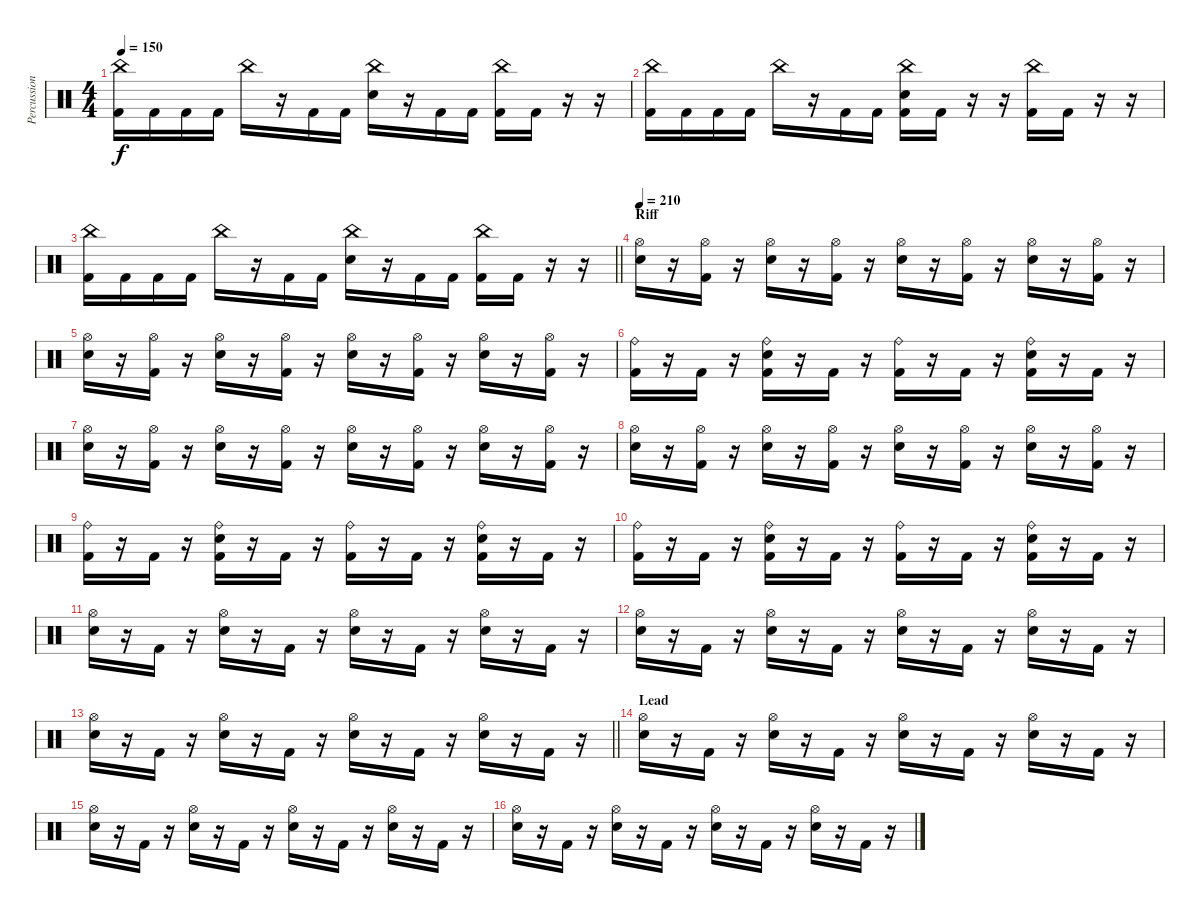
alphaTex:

\track ("Percussion" "Percussion") {instrument percussion}
\staff {score}
\articulation defaults
\ts (4 4)
\tempo 150
\clef neutral
\ks c
("China (hit)" "Kick (hit) 2").16{dy f} "Kick (hit) 2".16 "Kick (hit) 2".16 "Kick (hit) 2".16 "China (hit)".16 r.16 "Kick (hit) 2".16 "Kick (hit) 2".16 ("China (hit)" "Snare (hit) 2").16 r.16 "Kick (hit) 2".16 "Kick (hit) 2".16 ("China (hit)" "Kick (hit) 2").16 "Kick (hit) 2".16 r.16 r.16 |
("China (hit)" "Kick (hit) 2").16 "Kick (hit) 2".16 "Kick (hit) 2".16 "Kick (hit) 2".16 "China (hit)".16 r.16 "Kick (hit) 2".16 "Kick (hit) 2".16 ("China (hit)" "Snare (hit) 2" "Kick (hit) 2").16 "Kick (hit) 2".16 r.16 r.16 ("China (hit)" "Kick (hit) 2").16 "Kick (hit) 2".16 r.16 r.16 |
\barLineRight lightlight
("China (hit)" "Kick (hit) 2").16 "Kick (hit) 2".16 "Kick (hit) 2".16 "Kick (hit) 2".16 "China (hit)".16 r.16 "Kick (hit) 2".16 "Kick (hit) 2".16 ("China (hit)" "Snare (hit) 2").16 r.16 "Kick (hit) 2".16 "Kick (hit) 2".16 ("China (hit)" "Kick (hit) 2").16 "Kick (hit) 2".16 r.16 r.16 |
\section ("" "Riff")
\tempo 210
("Hi-Hat (open)" "Snare (hit) 2").16 r.16 ("Hi-Hat (open)" "Kick (hit) 2").16 r.16 ("Hi-Hat (open)" "Snare (hit) 2").16 r.16 ("Hi-Hat (open)" "Kick (hit) 2").16 r.16 ("Hi-Hat (open)" "Snare (hit) 2").16 r.16 ("Hi-Hat (open)" "Kick (hit) 2").16 r.16 ("Hi-Hat (open)" "Snare (hit) 2").16 r.16 ("Hi-Hat (open)" "Kick (hit) 2").16 r.16 |
("Hi-Hat (open)" "Snare (hit) 2").16 r.16 ("Hi-Hat (open)" "Kick (hit) 2").16 r.16 ("Hi-Hat (open)" "Snare (hit) 2").16 r.16 ("Hi-Hat (open)" "Kick (hit) 2").16 r.16 ("Hi-Hat (open)" "Snare (hit) 2").16 r.16 ("Hi-Hat (open)" "Kick (hit) 2").16 r.16 ("Hi-Hat (open)" "Snare (hit) 2").16 r.16 ("Hi-Hat (open)" "Kick (hit) 2").16 r.16 |
("Ride (bell)" "Kick (hit) 2").16 r.16 "Kick (hit) 2".16 r.16 ("Ride (bell)" "Snare (hit) 2" "Kick (hit) 2").16 r.16 "Kick (hit) 2".16 r.16 ("Ride (bell)" "Kick (hit) 2").16 r.16 "Kick (hit) 2".16 r.16 ("Ride (bell)" "Snare (hit) 2" "Kick (hit) 2").16 r.16 "Kick (hit) 2".16 r.16 |
("Hi-Hat (open)" "Snare (hit) 2").16 r.16 ("Hi-Hat (open)" "Kick (hit) 2").16 r.16 ("Hi-Hat (open)" "Snare (hit) 2").16 r.16 ("Hi-Hat (open)" "Kick (hit) 2").16 r.16 ("Hi-Hat (open)" "Snare (hit) 2").16 r.16 ("Hi-Hat (open)" "Kick (hit) 2").16 r.16 ("Hi-Hat (open)" "Snare (hit) 2").16 r.16 ("Hi-Hat (open)" "Kick (hit) 2").16 r.16 |
("Hi-Hat (open)" "Snare (hit) 2").16 r.16 ("Hi-Hat (open)" "Kick (hit) 2").16 r.16 ("Hi-Hat (open)" "Snare (hit) 2").16 r.16 ("Hi-Hat (open)" "Kick (hit) 2").16 r.16 ("Hi-Hat (open)" "Snare (hit) 2").16 r.16 ("Hi-Hat (open)" "Kick (hit) 2").16 r.16 ("Hi-Hat (open)" "Snare (hit) 2").16 r.16 ("Hi-Hat (open)" "Kick (hit) 2").16 r.16 |
("Ride (bell)" "Kick (hit) 2").16 r.16 "Kick (hit) 2".16 r.16 ("Ride (bell)" "Snare (hit) 2" "Kick (hit) 2").16 r.16 "Kick (hit) 2".16 r.16 ("Ride (bell)" "Kick (hit) 2").16 r.16 "Kick (hit) 2".16 r.16 ("Ride (bell)" "Snare (hit) 2" "Kick (hit) 2").16 r.16 "Kick (hit) 2".16 r.16 |
("Ride (bell)" "Kick (hit) 2").16 r.16 "Kick (hit) 2".16 r.16 ("Ride (bell)" "Snare (hit) 2" "Kick (hit) 2").16 r.16 "Kick (hit) 2".16 r.16 ("Ride (bell)" "Kick (hit) 2").16 r.16 "Kick (hit) 2".16 r.16 ("Ride (bell)" "Snare (hit) 2" "Kick (hit) 2").16 r.16 "Kick (hit) 2".16 r.16 |
("Hi-Hat (open)" "Snare (hit) 2").16 r.16 "Kick (hit) 2".16 r.16 ("Hi-Hat (open)" "Snare (hit) 2").16 r.16 "Kick (hit) 2".16 r.16 ("Hi-Hat (open)" "Snare (hit) 2").16 r.16 "Kick (hit) 2".16 r.16 ("Hi-Hat (open)" "Snare (hit) 2").16 r.16 "Kick (hit) 2".16 r.16 |
("Hi-Hat (open)" "Snare (hit) 2").16 r.16 "Kick (hit) 2".16 r.16 ("Hi-Hat (open)" "Snare (hit) 2").16 r.16 "Kick (hit) 2".16 r.16 ("Hi-Hat (open)" "Snare (hit) 2").16 r.16 "Kick (hit) 2".16 r.16 ("Hi-Hat (open)" "Snare (hit) 2").16 r.16 "Kick (hit) 2".16 r.16 |
\barLineRight lightlight
("Hi-Hat (open)" "Snare (hit) 2").16 r.16 "Kick (hit) 2".16 r.16 ("Hi-Hat (open)" "Snare (hit) 2").16 r.16 "Kick (hit) 2".16 r.16 ("Hi-Hat (open)" "Snare (hit) 2").16 r.16 "Kick (hit) 2".16 r.16 ("Hi-Hat (open)" "Snare (hit) 2").16 r.16 "Kick (hit) 2".16 r.16 |
\section ("" "Lead")
("Hi-Hat (open)" "Snare (hit) 2").16 r.16 "Kick (hit) 2".16 r.16 ("Hi-Hat (open)" "Snare (hit) 2").16 r.16 "Kick (hit) 2".16 r.16 ("Hi-Hat (open)" "Snare (hit) 2").16 r.16 "Kick (hit) 2".16 r.16 ("Hi-Hat (open)" "Snare (hit) 2").16 r.16 "Kick (hit) 2".16 r.16 |
("Hi-Hat (open)" "Snare (hit) 2").16 r.16 "Kick (hit) 2".16 r.16 ("Hi-Hat (open)" "Snare (hit) 2").16 r.16 "Kick (hit) 2".16 r.16 ("Hi-Hat (open)" "Snare (hit) 2").16 r.16 "Kick (hit) 2".16 r.16 ("Hi-Hat (open)" "Snare (hit) 2").16 r.16 "Kick (hit) 2".16 r.16 |
("Hi-Hat (open)" "Snare (hit) 2").16 r.16 "Kick (hit) 2".16 r.16 ("Hi-Hat (open)" "Snare (hit) 2").16 r.16 "Kick (hit) 2".16 r.16 ("Hi-Hat (open)" "Snare (hit) 2").16 r.16 "Kick (hit) 2".16 r.16 ("Hi-Hat (open)" "Snare (hit) 2").16 r.16 "Kick (hit) 2".16 r.16
